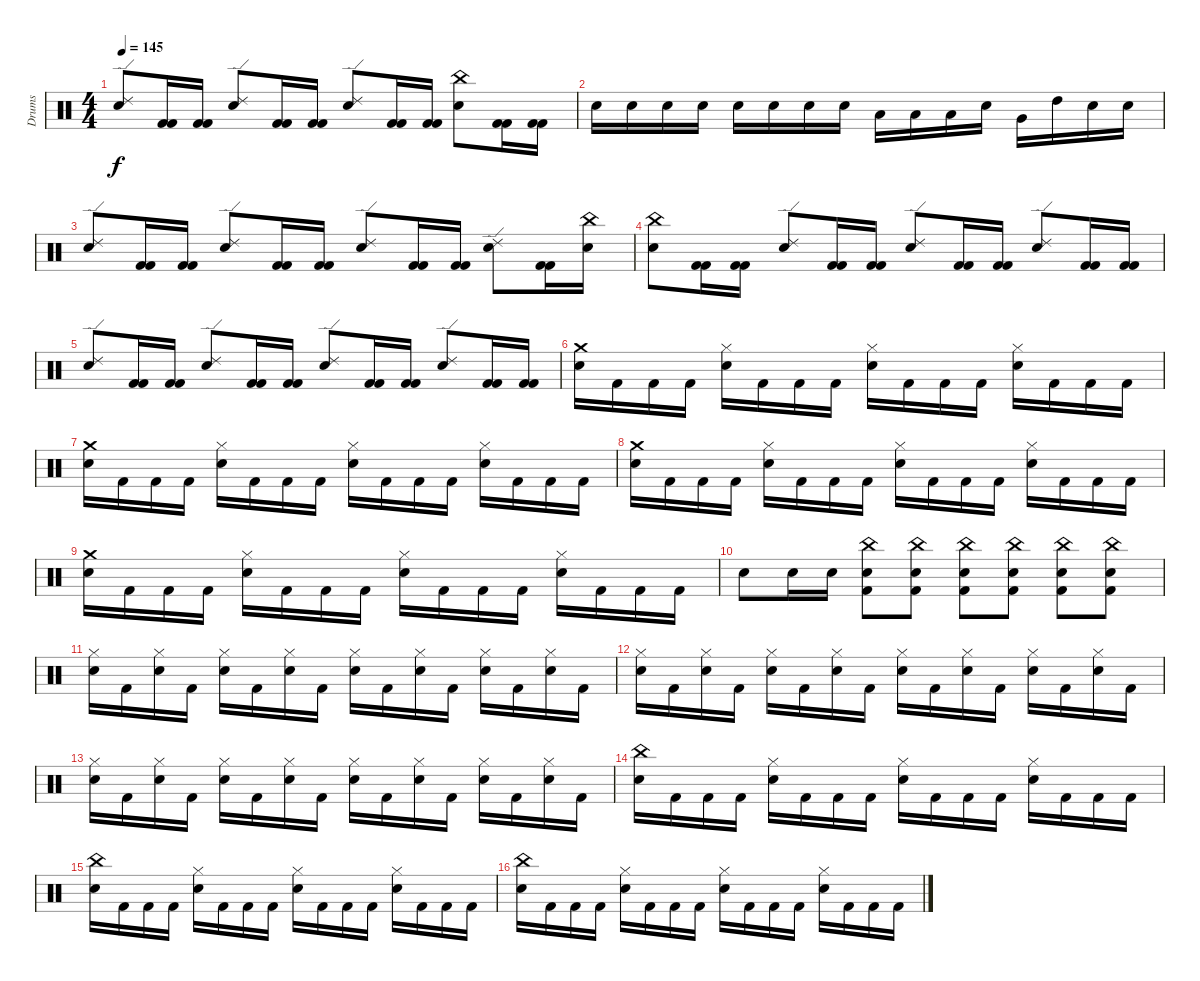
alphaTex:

\track ("Drums" "Drums") {instrument percussion}
\staff {score}
\articulation defaults
\ts (4 4)
\tempo 145
\clef neutral
\ks c
("Ride (edge) 2" "Electric Snare (hit)").8{dy f} ("Kick (hit) 2" "Kick (hit) 2").16 ("Kick (hit) 2" "Kick (hit) 2").16 ("Electric Snare (hit)" "Ride (edge) 2").8 ("Kick (hit) 2" "Kick (hit) 2").16 ("Kick (hit) 2" "Kick (hit) 2").16 ("Ride (edge) 2" "Electric Snare (hit)").8 ("Kick (hit) 2" "Kick (hit) 2").16 ("Kick (hit) 2" "Kick (hit) 2").16 ("China (hit)" "Electric Snare (hit)").8 ("Kick (hit) 2" "Kick (hit) 2").16 ("Kick (hit) 2" "Kick (hit) 2").16 |
"Electric Snare (hit)".16 "Electric Snare (hit)".16 "Electric Snare (hit)".16 "Electric Snare (hit)".16 "Electric Snare (hit)".16 "Electric Snare (hit)".16 "Electric Snare (hit)".16 "Electric Snare (hit)".16 "Low Tom (hit)".16 "Low Tom (hit)".16 "Low Tom (hit)".16 "Electric Snare (hit)".16 "Very Low Tom (hit)".16 "High Tom (hit)".16 "Electric Snare (hit)".16 "Electric Snare (hit)".16 |
("Ride (edge) 2" "Electric Snare (hit)").8 ("Kick (hit) 2" "Kick (hit) 2").16 ("Kick (hit) 2" "Kick (hit) 2").16 ("Electric Snare (hit)" "Ride (edge) 2").8 ("Kick (hit) 2" "Kick (hit) 2").16 ("Kick (hit) 2" "Kick (hit) 2").16 ("Ride (edge) 2" "Electric Snare (hit)").8 ("Kick (hit) 2" "Kick (hit) 2").16 ("Kick (hit) 2" "Kick (hit) 2").16 ("Ride (edge) 2" "Electric Snare (hit)").8 ("Kick (hit) 2" "Kick (hit) 2").16 ("China (hit)" "Electric Snare (hit)").16 |
("China (hit)" "Electric Snare (hit)").8 ("Kick (hit) 2" "Kick (hit) 2").16 ("Kick (hit) 2" "Kick (hit) 2").16 ("Electric Snare (hit)" "Ride (edge) 2").8 ("Kick (hit) 2" "Kick (hit) 2").16 ("Kick (hit) 2" "Kick (hit) 2").16 ("Ride (edge) 2" "Electric Snare (hit)").8 ("Kick (hit) 2" "Kick (hit) 2").16 ("Kick (hit) 2" "Kick (hit) 2").16 ("Ride (edge) 2" "Electric Snare (hit)").8 ("Kick (hit) 2" "Kick (hit) 2").16 ("Kick (hit) 2" "Kick (hit) 2").16 |
("Ride (edge) 2" "Electric Snare (hit)").8 ("Kick (hit) 2" "Kick (hit) 2").16 ("Kick (hit) 2" "Kick (hit) 2").16 ("Electric Snare (hit)" "Ride (edge) 2").8 ("Kick (hit) 2" "Kick (hit) 2").16 ("Kick (hit) 2" "Kick (hit) 2").16 ("Ride (edge) 2" "Electric Snare (hit)").8 ("Kick (hit) 2" "Kick (hit) 2").16 ("Kick (hit) 2" "Kick (hit) 2").16 ("Ride (edge) 2" "Electric Snare (hit)").8 ("Kick (hit) 2" "Kick (hit) 2").16 ("Kick (hit) 2" "Kick (hit) 2").16 |
("Crash medium (hit)" "Electric Snare (hit)").16 "Kick (hit) 2".16 "Kick (hit) 2".16 "Kick (hit) 2".16 ("Electric Snare (hit)" "Hi-Hat (closed)").16 "Kick (hit) 2".16 "Kick (hit) 2".16 "Kick (hit) 2".16 ("Hi-Hat (closed)" "Electric Snare (hit)").16 "Kick (hit) 2".16 "Kick (hit) 2".16 "Kick (hit) 2".16 ("Electric Snare (hit)" "Hi-Hat (closed)").16 "Kick (hit) 2".16 "Kick (hit) 2".16 "Kick (hit) 2".16 |
("Crash medium (hit)" "Electric Snare (hit)").16 "Kick (hit) 2".16 "Kick (hit) 2".16 "Kick (hit) 2".16 ("Electric Snare (hit)" "Hi-Hat (closed)").16 "Kick (hit) 2".16 "Kick (hit) 2".16 "Kick (hit) 2".16 ("Hi-Hat (closed)" "Electric Snare (hit)").16 "Kick (hit) 2".16 "Kick (hit) 2".16 "Kick (hit) 2".16 ("Electric Snare (hit)" "Hi-Hat (closed)").16 "Kick (hit) 2".16 "Kick (hit) 2".16 "Kick (hit) 2".16 |
("Crash medium (hit)" "Electric Snare (hit)").16 "Kick (hit) 2".16 "Kick (hit) 2".16 "Kick (hit) 2".16 ("Electric Snare (hit)" "Hi-Hat (closed)").16 "Kick (hit) 2".16 "Kick (hit) 2".16 "Kick (hit) 2".16 ("Hi-Hat (closed)" "Electric Snare (hit)").16 "Kick (hit) 2".16 "Kick (hit) 2".16 "Kick (hit) 2".16 ("Electric Snare (hit)" "Hi-Hat (closed)").16 "Kick (hit) 2".16 "Kick (hit) 2".16 "Kick (hit) 2".16 |
("Crash medium (hit)" "Electric Snare (hit)").16 "Kick (hit) 2".16 "Kick (hit) 2".16 "Kick (hit) 2".16 ("Electric Snare (hit)" "Hi-Hat (closed)").16 "Kick (hit) 2".16 "Kick (hit) 2".16 "Kick (hit) 2".16 ("Hi-Hat (closed)" "Electric Snare (hit)").16 "Kick (hit) 2".16 "Kick (hit) 2".16 "Kick (hit) 2".16 ("Electric Snare (hit)" "Hi-Hat (closed)").16 "Kick (hit) 2".16 "Kick (hit) 2".16 "Kick (hit) 2".16 |
"Electric Snare (hit)".8 "Electric Snare (hit)".16 "Electric Snare (hit)".16 ("Kick (hit) 2" "China (hit)" "Electric Snare (hit)").8 ("Kick (hit) 2" "Electric Snare (hit)" "China (hit)").8 ("Kick (hit) 2" "China (hit)" "Electric Snare (hit)").8 ("Kick (hit) 2" "China (hit)" "Electric Snare (hit)").8 ("Kick (hit) 2" "Electric Snare (hit)" "China (hit)").8 ("Kick (hit) 2" "China (hit)" "Electric Snare (hit)").8 |
("Hi-Hat (closed)" "Electric Snare (hit)").16 "Kick (hit) 2".16 ("Electric Snare (hit)" "Hi-Hat (closed)").16 "Kick (hit) 2".16 ("Hi-Hat (closed)" "Electric Snare (hit)").16 "Kick (hit) 2".16 ("Electric Snare (hit)" "Hi-Hat (closed)").16 "Kick (hit) 2".16 ("Electric Snare (hit)" "Hi-Hat (closed)").16 "Kick (hit) 2".16 ("Hi-Hat (closed)" "Electric Snare (hit)").16 "Kick (hit) 2".16 ("Electric Snare (hit)" "Hi-Hat (closed)").16 "Kick (hit) 2".16 ("Hi-Hat (closed)" "Electric Snare (hit)").16 "Kick (hit) 2".16 |
("Hi-Hat (closed)" "Electric Snare (hit)").16 "Kick (hit) 2".16 ("Electric Snare (hit)" "Hi-Hat (closed)").16 "Kick (hit) 2".16 ("Hi-Hat (closed)" "Electric Snare (hit)").16 "Kick (hit) 2".16 ("Electric Snare (hit)" "Hi-Hat (closed)").16 "Kick (hit) 2".16 ("Electric Snare (hit)" "Hi-Hat (closed)").16 "Kick (hit) 2".16 ("Hi-Hat (closed)" "Electric Snare (hit)").16 "Kick (hit) 2".16 ("Electric Snare (hit)" "Hi-Hat (closed)").16 "Kick (hit) 2".16 ("Hi-Hat (closed)" "Electric Snare (hit)").16 "Kick (hit) 2".16 |
("Hi-Hat (closed)" "Electric Snare (hit)").16 "Kick (hit) 2".16 ("Electric Snare (hit)" "Hi-Hat (closed)").16 "Kick (hit) 2".16 ("Hi-Hat (closed)" "Electric Snare (hit)").16 "Kick (hit) 2".16 ("Electric Snare (hit)" "Hi-Hat (closed)").16 "Kick (hit) 2".16 ("Electric Snare (hit)" "Hi-Hat (closed)").16 "Kick (hit) 2".16 ("Hi-Hat (closed)" "Electric Snare (hit)").16 "Kick (hit) 2".16 ("Electric Snare (hit)" "Hi-Hat (closed)").16 "Kick (hit) 2".16 ("Hi-Hat (closed)" "Electric Snare (hit)").16 "Kick (hit) 2".16 |
("China (hit)" "Electric Snare (hit)").16 "Kick (hit) 2".16 "Kick (hit) 2".16 "Kick (hit) 2".16 ("Electric Snare (hit)" "Hi-Hat (closed)").16 "Kick (hit) 2".16 "Kick (hit) 2".16 "Kick (hit) 2".16 ("Hi-Hat (closed)" "Electric Snare (hit)").16 "Kick (hit) 2".16 "Kick (hit) 2".16 "Kick (hit) 2".16 ("Electric Snare (hit)" "Hi-Hat (closed)").16 "Kick (hit) 2".16 "Kick (hit) 2".16 "Kick (hit) 2".16 |
("China (hit)" "Electric Snare (hit)").16 "Kick (hit) 2".16 "Kick (hit) 2".16 "Kick (hit) 2".16 ("Electric Snare (hit)" "Hi-Hat (closed)").16 "Kick (hit) 2".16 "Kick (hit) 2".16 "Kick (hit) 2".16 ("Hi-Hat (closed)" "Electric Snare (hit)").16 "Kick (hit) 2".16 "Kick (hit) 2".16 "Kick (hit) 2".16 ("Electric Snare (hit)" "Hi-Hat (closed)").16 "Kick (hit) 2".16 "Kick (hit) 2".16 "Kick (hit) 2".16 |
("China (hit)" "Electric Snare (hit)").16 "Kick (hit) 2".16 "Kick (hit) 2".16 "Kick (hit) 2".16 ("Electric Snare (hit)" "Hi-Hat (closed)").16 "Kick (hit) 2".16 "Kick (hit) 2".16 "Kick (hit) 2".16 ("Hi-Hat (closed)" "Electric Snare (hit)").16 "Kick (hit) 2".16 "Kick (hit) 2".16 "Kick (hit) 2".16 ("Electric Snare (hit)" "Hi-Hat (closed)").16 "Kick (hit) 2".16 "Kick (hit) 2".16 "Kick (hit) 2".16
